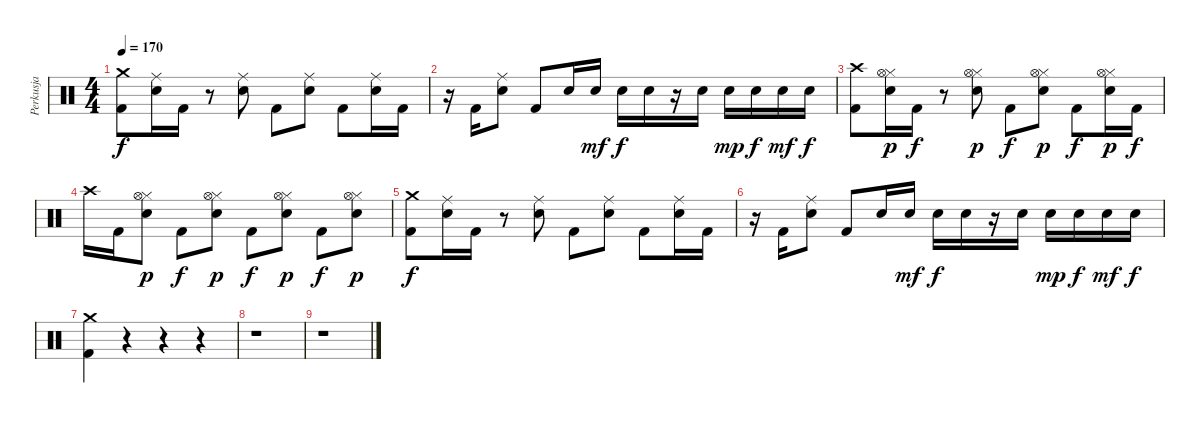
\track ("Perkusja" "Perkusja") {instrument percussion}
\staff {score}
\articulation defaults
\ts (4 4)
\tempo 170
\clef neutral
\ks c
("Kick (hit) 2" "Crash medium (hit)").8{dy f} ("Electric Snare (hit)" "Ride (middle)").16 "Kick (hit) 2".16 r.8 ("Electric Snare (hit)" "Ride (middle)").8 "Kick (hit) 2".8 ("Electric Snare (hit)" "Ride (middle)").8 "Kick (hit) 2".8 ("Electric Snare (hit)" "Ride (middle)").16 "Kick (hit) 2".16 |
r.16 "Kick (hit) 2".16 ("Electric Snare (hit)" "Ride (middle)").8 "Kick (hit) 2".8 "Electric Snare (hit)".16 "Electric Snare (hit)".16{dy mf} "Electric Snare (hit)".16{dy f} "Electric Snare (hit)".16 r.16 "Electric Snare (hit)".16 "Electric Snare (hit)".16{dy mp} "Electric Snare (hit)".16{dy f} "Electric Snare (hit)".16{dy mf} "Electric Snare (hit)".16{dy f} |
("Kick (hit) 2" "Crash high (hit)").8 ("Electric Snare (hit)" "Hi-Hat (closed)" "Hi-Hat (open)").16{dy p} "Kick (hit) 2".16{dy f} r.8 ("Electric Snare (hit)" "Hi-Hat (closed)" "Hi-Hat (open)").8{dy p} "Kick (hit) 2".8{dy f} ("Electric Snare (hit)" "Hi-Hat (closed)" "Hi-Hat (open)").8{dy p} "Kick (hit) 2".8{dy f} ("Electric Snare (hit)" "Hi-Hat (closed)" "Hi-Hat (open)").16{dy p} "Kick (hit) 2".16{dy f} |
"Crash high (hit)".16 "Kick (hit) 2".16 ("Electric Snare (hit)" "Hi-Hat (closed)" "Hi-Hat (open)").8{dy p} "Kick (hit) 2".8{dy f} ("Electric Snare (hit)" "Hi-Hat (closed)" "Hi-Hat (open)").8{dy p} "Kick (hit) 2".8{dy f} ("Electric Snare (hit)" "Hi-Hat (closed)" "Hi-Hat (open)").8{dy p} "Kick (hit) 2".8{dy f} ("Electric Snare (hit)" "Hi-Hat (closed)" "Hi-Hat (open)").8{dy p} |
("Kick (hit) 2" "Crash medium (hit)").8{dy f} ("Electric Snare (hit)" "Ride (middle)").16 "Kick (hit) 2".16 r.8 ("Electric Snare (hit)" "Ride (middle)").8 "Kick (hit) 2".8 ("Electric Snare (hit)" "Ride (middle)").8 "Kick (hit) 2".8 ("Electric Snare (hit)" "Ride (middle)").16 "Kick (hit) 2".16 |
r.16 "Kick (hit) 2".16 ("Electric Snare (hit)" "Ride (middle)").8 "Kick (hit) 2".8 "Electric Snare (hit)".16 "Electric Snare (hit)".16{dy mf} "Electric Snare (hit)".16{dy f} "Electric Snare (hit)".16 r.16 "Electric Snare (hit)".16 "Electric Snare (hit)".16{dy mp} "Electric Snare (hit)".16{dy f} "Electric Snare (hit)".16{dy mf} "Electric Snare (hit)".16{dy f} |
("Kick (hit) 2" "Crash medium (hit)").4 r.4 r.4 r.4 |
r.1 |
r.1
